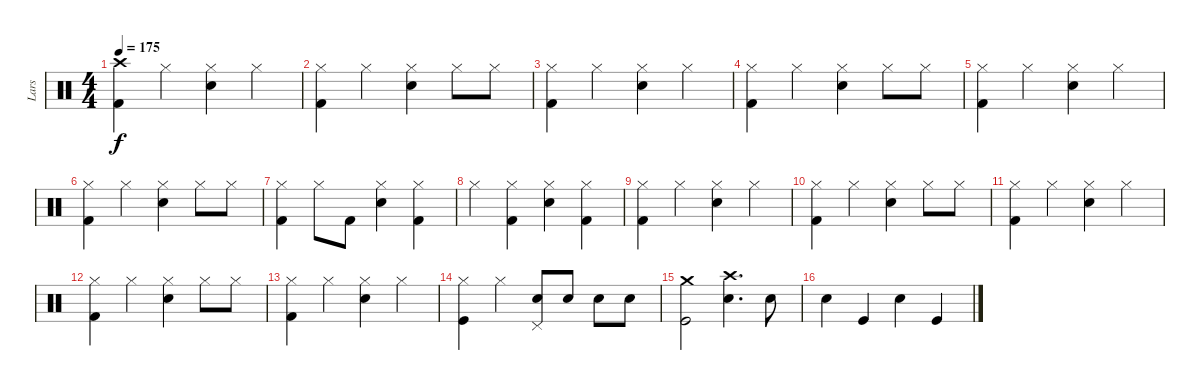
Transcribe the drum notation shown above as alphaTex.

\track ("Lars" "Lars") {instrument percussion}
\staff {score}
\articulation defaults
\ts (4 4)
\tempo 175
\clef neutral
\ks c
("Crash high (hit)" "Kick (hit) 2").4{dy f} "Hi-Hat (closed)".4 ("Hi-Hat (closed)" "Electric Snare (hit)").4 "Hi-Hat (closed)".4 |
("Hi-Hat (closed)" "Kick (hit) 2").4 "Hi-Hat (closed)".4 ("Hi-Hat (closed)" "Electric Snare (hit)").4 "Hi-Hat (closed)".8 "Hi-Hat (closed)".8 |
("Hi-Hat (closed)" "Kick (hit) 2").4 "Hi-Hat (closed)".4 ("Hi-Hat (closed)" "Electric Snare (hit)").4 "Hi-Hat (closed)".4 |
("Hi-Hat (closed)" "Kick (hit) 2").4 "Hi-Hat (closed)".4 ("Hi-Hat (closed)" "Electric Snare (hit)").4 "Hi-Hat (closed)".8 "Hi-Hat (closed)".8 |
("Hi-Hat (closed)" "Kick (hit) 2").4 "Hi-Hat (closed)".4 ("Hi-Hat (closed)" "Electric Snare (hit)").4 "Hi-Hat (closed)".4 |
("Hi-Hat (closed)" "Kick (hit) 2").4 "Hi-Hat (closed)".4 ("Hi-Hat (closed)" "Electric Snare (hit)").4 "Hi-Hat (closed)".8 "Hi-Hat (closed)".8 |
("Hi-Hat (closed)" "Kick (hit) 2").4 "Hi-Hat (closed)".8 "Kick (hit) 2".8 ("Hi-Hat (closed)" "Electric Snare (hit)").4 ("Hi-Hat (closed)" "Kick (hit) 2").4 |
"Hi-Hat (closed)".4 ("Hi-Hat (closed)" "Kick (hit) 2").4 ("Hi-Hat (closed)" "Electric Snare (hit)").4 ("Hi-Hat (closed)" "Kick (hit) 2").4 |
("Hi-Hat (closed)" "Kick (hit) 2").4 "Hi-Hat (closed)".4 ("Hi-Hat (closed)" "Electric Snare (hit)").4 "Hi-Hat (closed)".4 |
("Hi-Hat (closed)" "Kick (hit) 2").4 "Hi-Hat (closed)".4 ("Hi-Hat (closed)" "Electric Snare (hit)").4 "Hi-Hat (closed)".8 "Hi-Hat (closed)".8 |
("Hi-Hat (closed)" "Kick (hit) 2").4 "Hi-Hat (closed)".4 ("Hi-Hat (closed)" "Electric Snare (hit)").4 "Hi-Hat (closed)".4 |
("Hi-Hat (closed)" "Kick (hit) 2").4 "Hi-Hat (closed)".4 ("Hi-Hat (closed)" "Electric Snare (hit)").4 "Hi-Hat (closed)".8 "Hi-Hat (closed)".8 |
("Hi-Hat (closed)" "Kick (hit) 2").4 "Hi-Hat (closed)".4 ("Hi-Hat (closed)" "Electric Snare (hit)").4 "Hi-Hat (closed)".4 |
("Kick (hit)" "Hi-Hat (closed)").4 "Hi-Hat (closed)".4 ("Electric Snare (hit)" "Pedal Hi-Hat (hit)").8 "Electric Snare (hit)".8 "Electric Snare (hit)".8 "Electric Snare (hit)".8 |
("Kick (hit)" "Crash medium (hit)").2 ("Electric Snare (hit)" "Crash high (hit)").4{d} "Electric Snare (hit)".8 |
"Electric Snare (hit)".4 "Kick (hit)".4 "Electric Snare (hit)".4 "Kick (hit)".4
